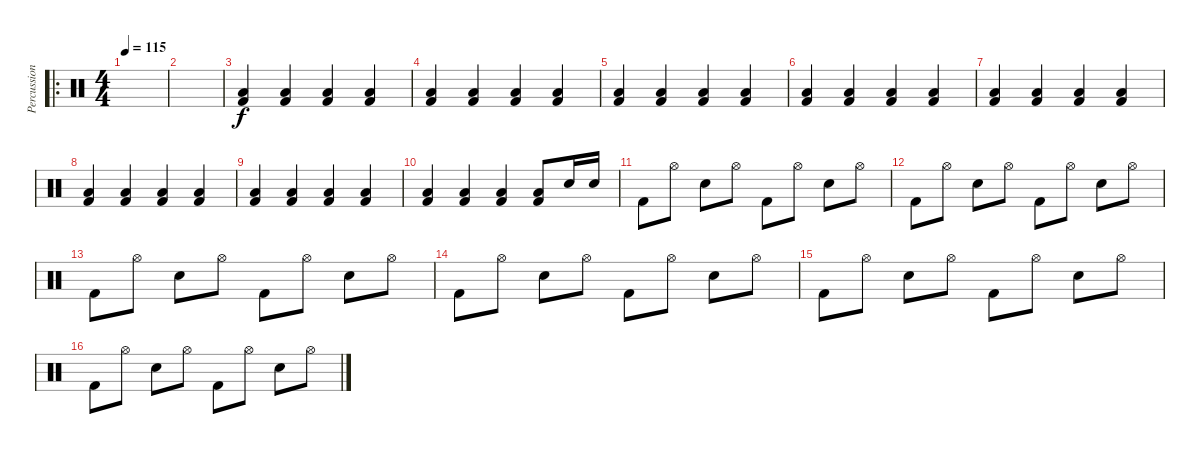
\track ("Percussion" "Percussion") {instrument percussion}
\staff {score}
\articulation defaults
\ro
\ts (4 4)
\tempo 115
\clef neutral
\ks c
|
|
("Low Floor Tom (hit)" "Kick (hit) 2").4 ("Low Floor Tom (hit)" "Kick (hit) 2").4 ("Low Floor Tom (hit)" "Kick (hit) 2").4 ("Low Floor Tom (hit)" "Kick (hit) 2").4 |
("Low Floor Tom (hit)" "Kick (hit) 2").4 ("Low Floor Tom (hit)" "Kick (hit) 2").4 ("Low Floor Tom (hit)" "Kick (hit) 2").4 ("Low Floor Tom (hit)" "Kick (hit) 2").4 |
("Low Floor Tom (hit)" "Kick (hit) 2").4 ("Low Floor Tom (hit)" "Kick (hit) 2").4 ("Low Floor Tom (hit)" "Kick (hit) 2").4 ("Low Floor Tom (hit)" "Kick (hit) 2").4 |
("Low Floor Tom (hit)" "Kick (hit) 2").4 ("Low Floor Tom (hit)" "Kick (hit) 2").4 ("Low Floor Tom (hit)" "Kick (hit) 2").4 ("Low Floor Tom (hit)" "Kick (hit) 2").4 |
("Low Floor Tom (hit)" "Kick (hit) 2").4 ("Low Floor Tom (hit)" "Kick (hit) 2").4 ("Low Floor Tom (hit)" "Kick (hit) 2").4 ("Low Floor Tom (hit)" "Kick (hit) 2").4 |
("Low Floor Tom (hit)" "Kick (hit) 2").4 ("Low Floor Tom (hit)" "Kick (hit) 2").4 ("Low Floor Tom (hit)" "Kick (hit) 2").4 ("Low Floor Tom (hit)" "Kick (hit) 2").4 |
("Low Floor Tom (hit)" "Kick (hit) 2").4 ("Low Floor Tom (hit)" "Kick (hit) 2").4 ("Low Floor Tom (hit)" "Kick (hit) 2").4 ("Low Floor Tom (hit)" "Kick (hit) 2").4 |
("Low Floor Tom (hit)" "Kick (hit) 2").4 ("Low Floor Tom (hit)" "Kick (hit) 2").4 ("Low Floor Tom (hit)" "Kick (hit) 2").4 ("Low Floor Tom (hit)" "Kick (hit) 2").8 "Snare (hit) 2".16 "Snare (hit) 2".16 |
"Kick (hit) 2".8 "Hi-Hat (open)".8 "Snare (hit) 2".8 "Hi-Hat (open)".8 "Kick (hit) 2".8 "Hi-Hat (open)".8 "Snare (hit) 2".8 "Hi-Hat (open)".8 |
"Kick (hit) 2".8 "Hi-Hat (open)".8 "Snare (hit) 2".8 "Hi-Hat (open)".8 "Kick (hit) 2".8 "Hi-Hat (open)".8 "Snare (hit) 2".8 "Hi-Hat (open)".8 |
"Kick (hit) 2".8 "Hi-Hat (open)".8 "Snare (hit) 2".8 "Hi-Hat (open)".8 "Kick (hit) 2".8 "Hi-Hat (open)".8 "Snare (hit) 2".8 "Hi-Hat (open)".8 |
"Kick (hit) 2".8 "Hi-Hat (open)".8 "Snare (hit) 2".8 "Hi-Hat (open)".8 "Kick (hit) 2".8 "Hi-Hat (open)".8 "Snare (hit) 2".8 "Hi-Hat (open)".8 |
"Kick (hit) 2".8 "Hi-Hat (open)".8 "Snare (hit) 2".8 "Hi-Hat (open)".8 "Kick (hit) 2".8 "Hi-Hat (open)".8 "Snare (hit) 2".8 "Hi-Hat (open)".8 |
"Kick (hit) 2".8 "Hi-Hat (open)".8 "Snare (hit) 2".8 "Hi-Hat (open)".8 "Kick (hit) 2".8 "Hi-Hat (open)".8 "Snare (hit) 2".8 "Hi-Hat (open)".8
